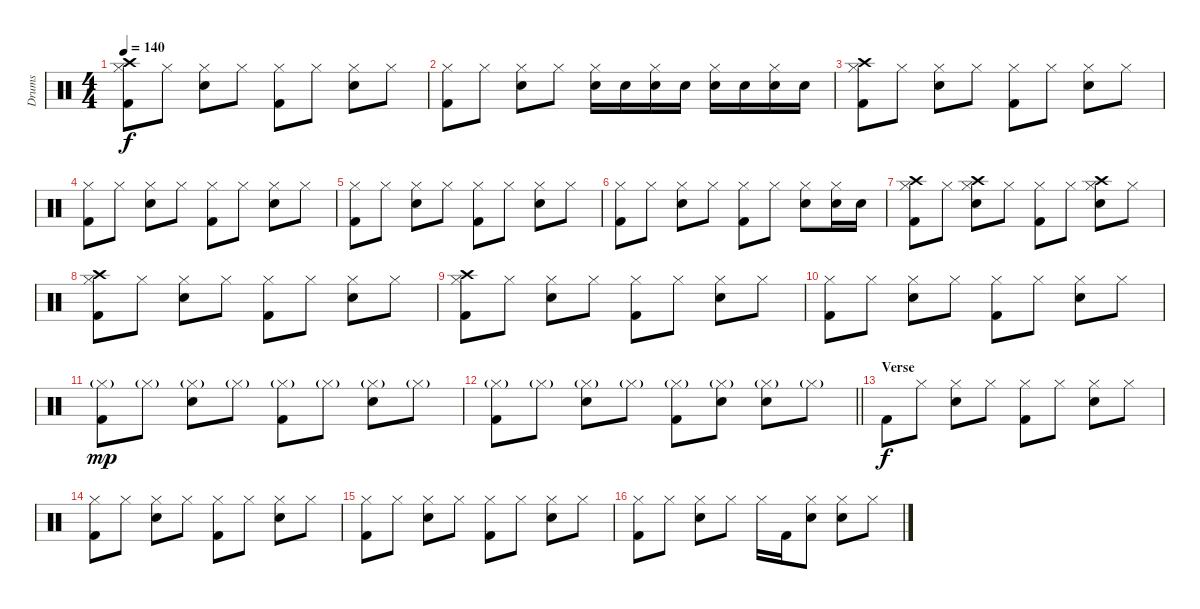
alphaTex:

\track ("Drums" "Drums") {instrument percussion}
\staff {score}
\articulation defaults
\ts (4 4)
\tempo 140
\clef neutral
\ks c
("Hi-Hat (closed)" "Crash high (hit)" "Kick (hit) 2").8{dy f} "Hi-Hat (closed)".8 ("Hi-Hat (closed)" "Snare (hit) 2").8 "Hi-Hat (closed)".8 ("Hi-Hat (closed)" "Kick (hit) 2").8 "Hi-Hat (closed)".8 ("Hi-Hat (closed)" "Snare (hit) 2").8 "Hi-Hat (closed)".8 |
("Hi-Hat (closed)" "Kick (hit) 2").8 "Hi-Hat (closed)".8 ("Hi-Hat (closed)" "Snare (hit) 2").8 "Hi-Hat (closed)".8 ("Hi-Hat (closed)" "Snare (hit) 2").16 "Snare (hit) 2".16 ("Hi-Hat (closed)" "Snare (hit) 2").16 "Snare (hit) 2".16 ("Hi-Hat (closed)" "Snare (hit) 2").16 "Snare (hit) 2".16 ("Hi-Hat (closed)" "Snare (hit) 2").16 "Snare (hit) 2".16 |
("Hi-Hat (closed)" "Crash high (hit)" "Kick (hit) 2").8 "Hi-Hat (closed)".8 ("Hi-Hat (closed)" "Snare (hit) 2").8 "Hi-Hat (closed)".8 ("Hi-Hat (closed)" "Kick (hit) 2").8 "Hi-Hat (closed)".8 ("Hi-Hat (closed)" "Snare (hit) 2").8 "Hi-Hat (closed)".8 |
("Hi-Hat (closed)" "Kick (hit) 2").8 "Hi-Hat (closed)".8 ("Hi-Hat (closed)" "Snare (hit) 2").8 "Hi-Hat (closed)".8 ("Hi-Hat (closed)" "Kick (hit) 2").8 "Hi-Hat (closed)".8 ("Hi-Hat (closed)" "Snare (hit) 2").8 "Hi-Hat (closed)".8 |
("Hi-Hat (closed)" "Kick (hit) 2").8 "Hi-Hat (closed)".8 ("Hi-Hat (closed)" "Snare (hit) 2").8 "Hi-Hat (closed)".8 ("Hi-Hat (closed)" "Kick (hit) 2").8 "Hi-Hat (closed)".8 ("Hi-Hat (closed)" "Snare (hit) 2").8 "Hi-Hat (closed)".8 |
("Hi-Hat (closed)" "Kick (hit) 2").8 "Hi-Hat (closed)".8 ("Hi-Hat (closed)" "Snare (hit) 2").8 "Hi-Hat (closed)".8 ("Hi-Hat (closed)" "Kick (hit) 2").8 "Hi-Hat (closed)".8 ("Hi-Hat (closed)" "Snare (hit) 2").8 ("Hi-Hat (closed)" "Snare (hit) 2").16 "Snare (hit) 2".16 |
("Hi-Hat (closed)" "Crash high (hit)" "Kick (hit) 2").8 "Hi-Hat (closed)".8 ("Hi-Hat (closed)" "Crash high (hit)" "Snare (hit) 2").8 "Hi-Hat (closed)".8 ("Hi-Hat (closed)" "Kick (hit) 2").8 "Hi-Hat (closed)".8 ("Hi-Hat (closed)" "Crash high (hit)" "Snare (hit) 2").8 "Hi-Hat (closed)".8 |
("Hi-Hat (closed)" "Crash high (hit)" "Kick (hit) 2").8 "Hi-Hat (closed)".8 ("Hi-Hat (closed)" "Snare (hit) 2").8 "Hi-Hat (closed)".8 ("Hi-Hat (closed)" "Kick (hit) 2").8 "Hi-Hat (closed)".8 ("Hi-Hat (closed)" "Snare (hit) 2").8 "Hi-Hat (closed)".8 |
("Hi-Hat (closed)" "Crash high (hit)" "Kick (hit) 2").8 "Hi-Hat (closed)".8 ("Hi-Hat (closed)" "Snare (hit) 2").8 "Hi-Hat (closed)".8 ("Hi-Hat (closed)" "Kick (hit) 2").8 "Hi-Hat (closed)".8 ("Hi-Hat (closed)" "Snare (hit) 2").8 "Hi-Hat (closed)".8 |
("Hi-Hat (closed)" "Kick (hit) 2").8 "Hi-Hat (closed)".8 ("Hi-Hat (closed)" "Snare (hit) 2").8 "Hi-Hat (closed)".8 ("Hi-Hat (closed)" "Kick (hit) 2").8 "Hi-Hat (closed)".8 ("Hi-Hat (closed)" "Snare (hit) 2").8 "Hi-Hat (closed)".8 |
("Hi-Hat (closed)"{g} "Kick (hit) 2").8{dy mp} "Hi-Hat (closed)"{g}.8 ("Hi-Hat (closed)"{g} "Snare (hit) 2").8 "Hi-Hat (closed)"{g}.8 ("Hi-Hat (closed)"{g} "Kick (hit) 2").8 "Hi-Hat (closed)"{g}.8 ("Hi-Hat (closed)"{g} "Snare (hit) 2").8 "Hi-Hat (closed)"{g}.8 |
\barLineRight lightlight
("Hi-Hat (closed)"{g} "Kick (hit) 2").8 "Hi-Hat (closed)"{g}.8 ("Hi-Hat (closed)"{g} "Snare (hit) 2").8 "Hi-Hat (closed)"{g}.8 ("Hi-Hat (closed)"{g} "Kick (hit) 2").8 ("Hi-Hat (closed)"{g} "Snare (hit) 2").8 ("Hi-Hat (closed)"{g} "Snare (hit) 2").8 "Hi-Hat (closed)"{g}.8 |
\section ("" "Verse")
"Kick (hit) 2".8{dy f} "Hi-Hat (closed)".8 ("Hi-Hat (closed)" "Snare (hit) 2").8 "Hi-Hat (closed)".8 ("Hi-Hat (closed)" "Kick (hit) 2").8 "Hi-Hat (closed)".8 ("Hi-Hat (closed)" "Snare (hit) 2").8 "Hi-Hat (closed)".8 |
("Hi-Hat (closed)" "Kick (hit) 2").8 "Hi-Hat (closed)".8 ("Hi-Hat (closed)" "Snare (hit) 2").8 "Hi-Hat (closed)".8 ("Hi-Hat (closed)" "Kick (hit) 2").8 "Hi-Hat (closed)".8 ("Hi-Hat (closed)" "Snare (hit) 2").8 "Hi-Hat (closed)".8 |
("Hi-Hat (closed)" "Kick (hit) 2").8 "Hi-Hat (closed)".8 ("Hi-Hat (closed)" "Snare (hit) 2").8 "Hi-Hat (closed)".8 ("Hi-Hat (closed)" "Kick (hit) 2").8 "Hi-Hat (closed)".8 ("Hi-Hat (closed)" "Snare (hit) 2").8 "Hi-Hat (closed)".8 |
("Hi-Hat (closed)" "Kick (hit) 2").8 "Hi-Hat (closed)".8 ("Hi-Hat (closed)" "Snare (hit) 2").8 "Hi-Hat (closed)".8 "Hi-Hat (closed)".16 "Kick (hit) 2".16 ("Hi-Hat (closed)" "Snare (hit) 2").8 ("Hi-Hat (closed)" "Snare (hit) 2").8 "Hi-Hat (closed)".8
